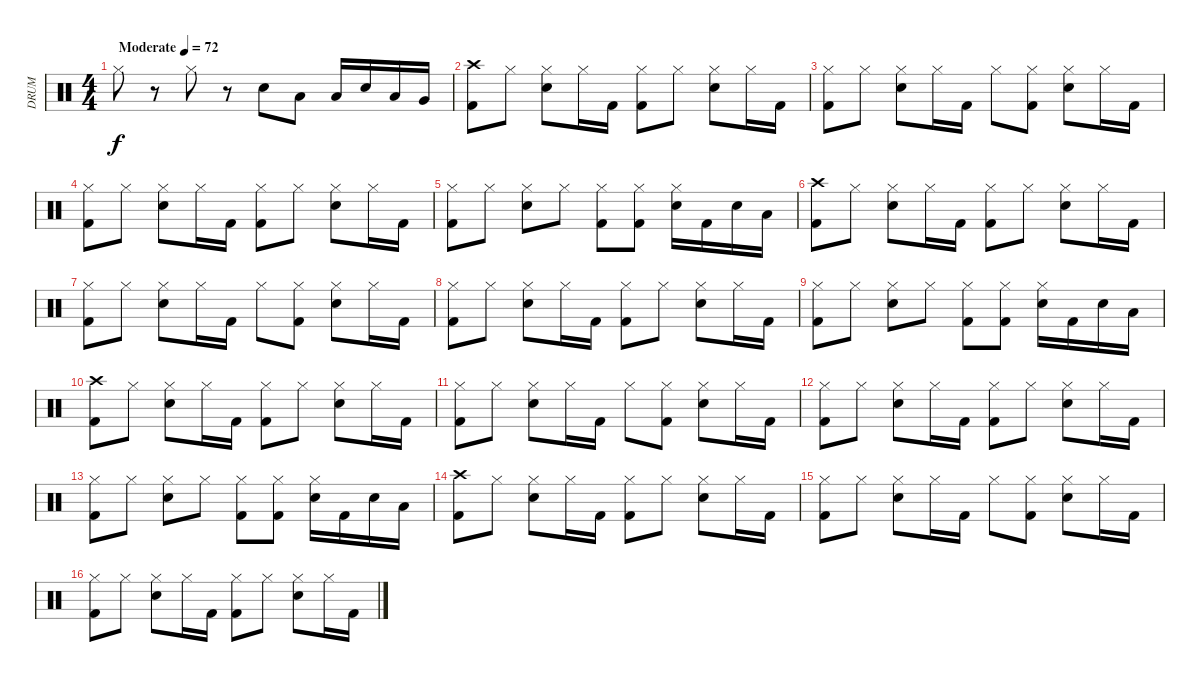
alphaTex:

\track ("DRUM" "DRUM") {instrument percussion}
\staff {score}
\articulation defaults
\ts (4 4)
\tempo (72 "Moderate")
\clef neutral
\ks c "Hi-Hat (closed)".8{dy f}
r.8 "Hi-Hat (closed)".8 r.8 "Electric Snare (hit)".8 "Low Tom (hit)".8 "Low Floor Tom (hit)".16 "Electric Snare (hit)".16 "Low Tom (hit)".16 "Very Low Tom (hit)".16 |
("Kick (hit) 2" "Crash high (hit)").8 "Hi-Hat (closed)".8 ("Hi-Hat (closed)" "Electric Snare (hit)").8 "Hi-Hat (closed)".16 "Kick (hit) 2".16 ("Kick (hit) 2" "Hi-Hat (closed)").8 "Hi-Hat (closed)".8 ("Hi-Hat (closed)" "Electric Snare (hit)").8 "Hi-Hat (closed)".16 "Kick (hit) 2".16 |
("Kick (hit) 2" "Hi-Hat (closed)").8 "Hi-Hat (closed)".8 ("Hi-Hat (closed)" "Electric Snare (hit)").8 "Hi-Hat (closed)".16 "Kick (hit) 2".16 "Hi-Hat (closed)".8 ("Kick (hit) 2" "Hi-Hat (closed)").8 ("Hi-Hat (closed)" "Electric Snare (hit)").8 "Hi-Hat (closed)".16 "Kick (hit) 2".16 |
("Kick (hit) 2" "Hi-Hat (closed)").8 "Hi-Hat (closed)".8 ("Hi-Hat (closed)" "Electric Snare (hit)").8 "Hi-Hat (closed)".16 "Kick (hit) 2".16 ("Kick (hit) 2" "Hi-Hat (closed)").8 "Hi-Hat (closed)".8 ("Hi-Hat (closed)" "Electric Snare (hit)").8 "Hi-Hat (closed)".16 "Kick (hit) 2".16 |
("Kick (hit) 2" "Hi-Hat (closed)").8 "Hi-Hat (closed)".8 ("Hi-Hat (closed)" "Electric Snare (hit)").8 "Hi-Hat (closed)".8 ("Kick (hit) 2" "Hi-Hat (closed)").8 ("Kick (hit) 2" "Hi-Hat (closed)").8 ("Hi-Hat (closed)" "Electric Snare (hit)").16 "Kick (hit) 2".16 "Electric Snare (hit)".16 "Low Tom (hit)".16 |
("Kick (hit) 2" "Crash high (hit)").8 "Hi-Hat (closed)".8 ("Hi-Hat (closed)" "Electric Snare (hit)").8 "Hi-Hat (closed)".16 "Kick (hit) 2".16 ("Kick (hit) 2" "Hi-Hat (closed)").8 "Hi-Hat (closed)".8 ("Hi-Hat (closed)" "Electric Snare (hit)").8 "Hi-Hat (closed)".16 "Kick (hit) 2".16 |
("Kick (hit) 2" "Hi-Hat (closed)").8 "Hi-Hat (closed)".8 ("Hi-Hat (closed)" "Electric Snare (hit)").8 "Hi-Hat (closed)".16 "Kick (hit) 2".16 "Hi-Hat (closed)".8 ("Kick (hit) 2" "Hi-Hat (closed)").8 ("Hi-Hat (closed)" "Electric Snare (hit)").8 "Hi-Hat (closed)".16 "Kick (hit) 2".16 |
("Kick (hit) 2" "Hi-Hat (closed)").8 "Hi-Hat (closed)".8 ("Hi-Hat (closed)" "Electric Snare (hit)").8 "Hi-Hat (closed)".16 "Kick (hit) 2".16 ("Kick (hit) 2" "Hi-Hat (closed)").8 "Hi-Hat (closed)".8 ("Hi-Hat (closed)" "Electric Snare (hit)").8 "Hi-Hat (closed)".16 "Kick (hit) 2".16 |
("Kick (hit) 2" "Hi-Hat (closed)").8 "Hi-Hat (closed)".8 ("Hi-Hat (closed)" "Electric Snare (hit)").8 "Hi-Hat (closed)".8 ("Kick (hit) 2" "Hi-Hat (closed)").8 ("Kick (hit) 2" "Hi-Hat (closed)").8 ("Hi-Hat (closed)" "Electric Snare (hit)").16 "Kick (hit) 2".16 "Electric Snare (hit)".16 "Low Tom (hit)".16 |
("Kick (hit) 2" "Crash high (hit)").8 "Hi-Hat (closed)".8 ("Hi-Hat (closed)" "Electric Snare (hit)").8 "Hi-Hat (closed)".16 "Kick (hit) 2".16 ("Kick (hit) 2" "Hi-Hat (closed)").8 "Hi-Hat (closed)".8 ("Hi-Hat (closed)" "Electric Snare (hit)").8 "Hi-Hat (closed)".16 "Kick (hit) 2".16 |
("Kick (hit) 2" "Hi-Hat (closed)").8 "Hi-Hat (closed)".8 ("Hi-Hat (closed)" "Electric Snare (hit)").8 "Hi-Hat (closed)".16 "Kick (hit) 2".16 "Hi-Hat (closed)".8 ("Kick (hit) 2" "Hi-Hat (closed)").8 ("Hi-Hat (closed)" "Electric Snare (hit)").8 "Hi-Hat (closed)".16 "Kick (hit) 2".16 |
("Kick (hit) 2" "Hi-Hat (closed)").8 "Hi-Hat (closed)".8 ("Hi-Hat (closed)" "Electric Snare (hit)").8 "Hi-Hat (closed)".16 "Kick (hit) 2".16 ("Kick (hit) 2" "Hi-Hat (closed)").8 "Hi-Hat (closed)".8 ("Hi-Hat (closed)" "Electric Snare (hit)").8 "Hi-Hat (closed)".16 "Kick (hit) 2".16 |
("Kick (hit) 2" "Hi-Hat (closed)").8 "Hi-Hat (closed)".8 ("Hi-Hat (closed)" "Electric Snare (hit)").8 "Hi-Hat (closed)".8 ("Kick (hit) 2" "Hi-Hat (closed)").8 ("Kick (hit) 2" "Hi-Hat (closed)").8 ("Hi-Hat (closed)" "Electric Snare (hit)").16 "Kick (hit) 2".16 "Electric Snare (hit)".16 "Low Tom (hit)".16 |
("Kick (hit) 2" "Crash high (hit)").8 "Hi-Hat (closed)".8 ("Hi-Hat (closed)" "Electric Snare (hit)").8 "Hi-Hat (closed)".16 "Kick (hit) 2".16 ("Kick (hit) 2" "Hi-Hat (closed)").8 "Hi-Hat (closed)".8 ("Hi-Hat (closed)" "Electric Snare (hit)").8 "Hi-Hat (closed)".16 "Kick (hit) 2".16 |
("Kick (hit) 2" "Hi-Hat (closed)").8 "Hi-Hat (closed)".8 ("Hi-Hat (closed)" "Electric Snare (hit)").8 "Hi-Hat (closed)".16 "Kick (hit) 2".16 "Hi-Hat (closed)".8 ("Kick (hit) 2" "Hi-Hat (closed)").8 ("Hi-Hat (closed)" "Electric Snare (hit)").8 "Hi-Hat (closed)".16 "Kick (hit) 2".16 |
("Kick (hit) 2" "Hi-Hat (closed)").8 "Hi-Hat (closed)".8 ("Hi-Hat (closed)" "Electric Snare (hit)").8 "Hi-Hat (closed)".16 "Kick (hit) 2".16 ("Kick (hit) 2" "Hi-Hat (closed)").8 "Hi-Hat (closed)".8 ("Hi-Hat (closed)" "Electric Snare (hit)").8 "Hi-Hat (closed)".16 "Kick (hit) 2".16
